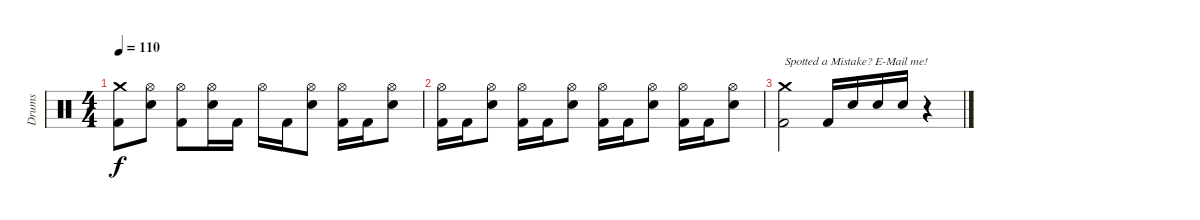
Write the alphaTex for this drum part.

\track ("Drums" "Drums") {instrument percussion}
\staff {score}
\articulation defaults
\ts (4 4)
\tempo 110
\clef neutral
\ks c
("Crash medium (hit)" "Kick (hit) 2").8{dy f} ("Hi-Hat (open)" "Electric Snare (hit)").8 ("Hi-Hat (open)" "Kick (hit) 2").8 ("Hi-Hat (open)" "Electric Snare (hit)").16 "Kick (hit) 2".16 "Hi-Hat (open)".16 "Kick (hit) 2".16 ("Hi-Hat (open)" "Electric Snare (hit)").8 ("Hi-Hat (open)" "Kick (hit) 2").16 "Kick (hit) 2".16 ("Hi-Hat (open)" "Electric Snare (hit)").8 |
("Hi-Hat (open)" "Kick (hit) 2").16 "Kick (hit) 2".16 ("Hi-Hat (open)" "Electric Snare (hit)").8 ("Hi-Hat (open)" "Kick (hit) 2").16 "Kick (hit) 2".16 ("Hi-Hat (open)" "Electric Snare (hit)").8 ("Hi-Hat (open)" "Kick (hit) 2").16 "Kick (hit) 2".16 ("Hi-Hat (open)" "Electric Snare (hit)").8 ("Hi-Hat (open)" "Kick (hit) 2").16 "Kick (hit) 2".16 ("Hi-Hat (open)" "Electric Snare (hit)").8 |
("Crash medium (hit)" "Kick (hit) 2").2{txt "Spotted a Mistake? E-Mail me!"} "Kick (hit) 2".16 "Electric Snare (hit)".16 "Electric Snare (hit)".16 "Electric Snare (hit)".16 r.4
